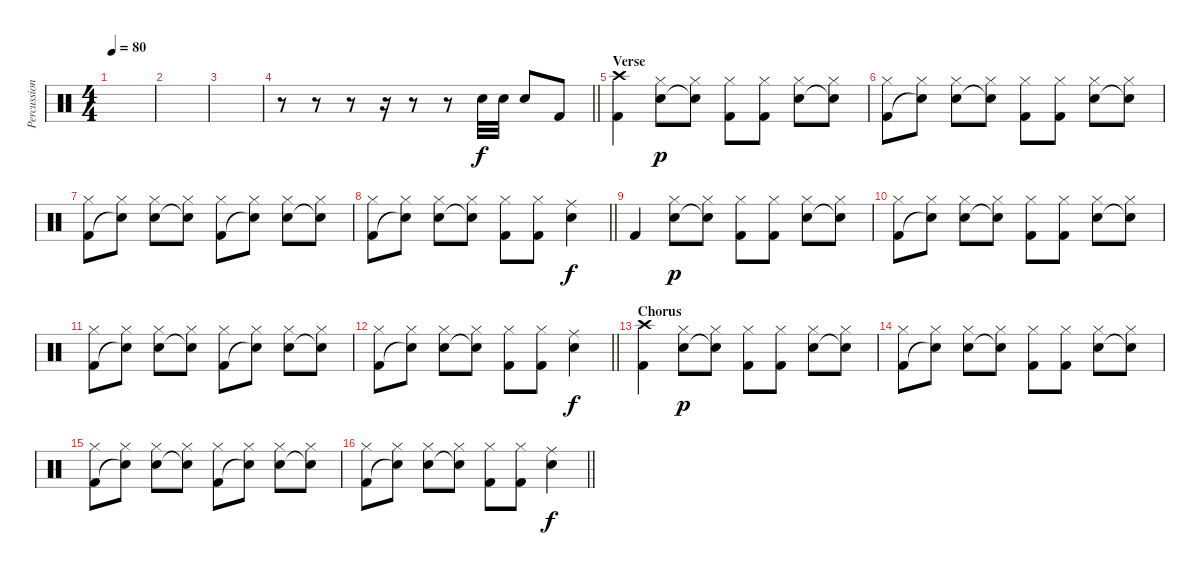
\track ("Percussions" "Percussion") {instrument percussion}
\staff {score}
\articulation defaults
\ts (4 4)
\section ("" "")
\tempo 80
\clef neutral
\ks c
|
|
|
\barLineRight lightlight
r.8 r.8 r.8 r.16 r.8 r.8 "Electric Snare (hit)".32 "Electric Snare (hit)".32 "Electric Snare (hit)".8{dy f} "Kick (hit) 2".8 |
\section ("" "Verse")
("Crash high (hit)" "Kick (hit) 2").4 ("Hi-Hat (closed)" "Electric Snare (hit)").8{dy p} ("Hi-Hat (closed)" "Snare (hit)"{t}).8 ("Hi-Hat (closed)" "Kick (hit) 2").8 ("Hi-Hat (closed)" "Kick (hit) 2").8 ("Hi-Hat (closed)" "Electric Snare (hit)").8 ("Hi-Hat (closed)" "Snare (hit)"{t}).8 |
("Hi-Hat (closed)" "Kick (hit) 2").8 ("Hi-Hat (closed)" "Snare (hit)"{t}).8 ("Hi-Hat (closed)" "Electric Snare (hit)").8 ("Hi-Hat (closed)" "Snare (hit)"{t}).8 ("Hi-Hat (closed)" "Kick (hit) 2").8 ("Hi-Hat (closed)" "Kick (hit) 2").8 ("Hi-Hat (closed)" "Electric Snare (hit)").8 ("Hi-Hat (closed)" "Snare (hit)"{t}).8 |
("Hi-Hat (closed)" "Kick (hit) 2").8 ("Hi-Hat (closed)" "Snare (hit)"{t}).8 ("Hi-Hat (closed)" "Electric Snare (hit)").8 ("Hi-Hat (closed)" "Snare (hit)"{t}).8 ("Hi-Hat (closed)" "Kick (hit) 2").8 ("Hi-Hat (closed)" "Snare (hit)"{t}).8 ("Hi-Hat (closed)" "Electric Snare (hit)").8 ("Hi-Hat (closed)" "Snare (hit)"{t}).8 |
\barLineRight lightlight
("Hi-Hat (closed)" "Kick (hit) 2").8 ("Hi-Hat (closed)" "Snare (hit)"{t}).8 ("Hi-Hat (closed)" "Electric Snare (hit)").8 ("Hi-Hat (closed)" "Snare (hit)"{t}).8 ("Hi-Hat (closed)" "Kick (hit) 2").8 ("Hi-Hat (closed)" "Kick (hit) 2").8 ("Ride (middle)" "Electric Snare (hit)").4{dy f} |
\section ("" "")
"Kick (hit) 2".4 ("Hi-Hat (closed)" "Electric Snare (hit)").8{dy p} ("Hi-Hat (closed)" "Snare (hit)"{t}).8 ("Hi-Hat (closed)" "Kick (hit) 2").8 ("Hi-Hat (closed)" "Kick (hit) 2").8 ("Hi-Hat (closed)" "Electric Snare (hit)").8 ("Hi-Hat (closed)" "Snare (hit)"{t}).8 |
("Hi-Hat (closed)" "Kick (hit) 2").8 ("Hi-Hat (closed)" "Snare (hit)"{t}).8 ("Hi-Hat (closed)" "Electric Snare (hit)").8 ("Hi-Hat (closed)" "Snare (hit)"{t}).8 ("Hi-Hat (closed)" "Kick (hit) 2").8 ("Hi-Hat (closed)" "Kick (hit) 2").8 ("Hi-Hat (closed)" "Electric Snare (hit)").8 ("Hi-Hat (closed)" "Snare (hit)"{t}).8 |
("Hi-Hat (closed)" "Kick (hit) 2").8 ("Hi-Hat (closed)" "Snare (hit)"{t}).8 ("Hi-Hat (closed)" "Electric Snare (hit)").8 ("Hi-Hat (closed)" "Snare (hit)"{t}).8 ("Hi-Hat (closed)" "Kick (hit) 2").8 ("Hi-Hat (closed)" "Snare (hit)"{t}).8 ("Hi-Hat (closed)" "Electric Snare (hit)").8 ("Hi-Hat (closed)" "Snare (hit)"{t}).8 |
\barLineRight lightlight
("Hi-Hat (closed)" "Kick (hit) 2").8 ("Hi-Hat (closed)" "Snare (hit)"{t}).8 ("Hi-Hat (closed)" "Electric Snare (hit)").8 ("Hi-Hat (closed)" "Snare (hit)"{t}).8 ("Hi-Hat (closed)" "Kick (hit) 2").8 ("Hi-Hat (closed)" "Kick (hit) 2").8 ("Ride (middle)" "Electric Snare (hit)").4{dy f} |
\section ("" "Chorus")
("Crash high (hit)" "Kick (hit) 2").4 ("Hi-Hat (closed)" "Electric Snare (hit)").8{dy p} ("Hi-Hat (closed)" "Snare (hit)"{t}).8 ("Hi-Hat (closed)" "Kick (hit) 2").8 ("Hi-Hat (closed)" "Kick (hit) 2").8 ("Hi-Hat (closed)" "Electric Snare (hit)").8 ("Hi-Hat (closed)" "Snare (hit)"{t}).8 |
("Hi-Hat (closed)" "Kick (hit) 2").8 ("Hi-Hat (closed)" "Snare (hit)"{t}).8 ("Hi-Hat (closed)" "Electric Snare (hit)").8 ("Hi-Hat (closed)" "Snare (hit)"{t}).8 ("Hi-Hat (closed)" "Kick (hit) 2").8 ("Hi-Hat (closed)" "Kick (hit) 2").8 ("Hi-Hat (closed)" "Electric Snare (hit)").8 ("Hi-Hat (closed)" "Snare (hit)"{t}).8 |
("Hi-Hat (closed)" "Kick (hit) 2").8 ("Hi-Hat (closed)" "Snare (hit)"{t}).8 ("Hi-Hat (closed)" "Electric Snare (hit)").8 ("Hi-Hat (closed)" "Snare (hit)"{t}).8 ("Hi-Hat (closed)" "Kick (hit) 2").8 ("Hi-Hat (closed)" "Snare (hit)"{t}).8 ("Hi-Hat (closed)" "Electric Snare (hit)").8 ("Hi-Hat (closed)" "Snare (hit)"{t}).8 |
\barLineRight lightlight
("Hi-Hat (closed)" "Kick (hit) 2").8 ("Hi-Hat (closed)" "Snare (hit)"{t}).8 ("Hi-Hat (closed)" "Electric Snare (hit)").8 ("Hi-Hat (closed)" "Snare (hit)"{t}).8 ("Hi-Hat (closed)" "Kick (hit) 2").8 ("Hi-Hat (closed)" "Kick (hit) 2").8 ("Ride (middle)" "Electric Snare (hit)").4{dy f}
